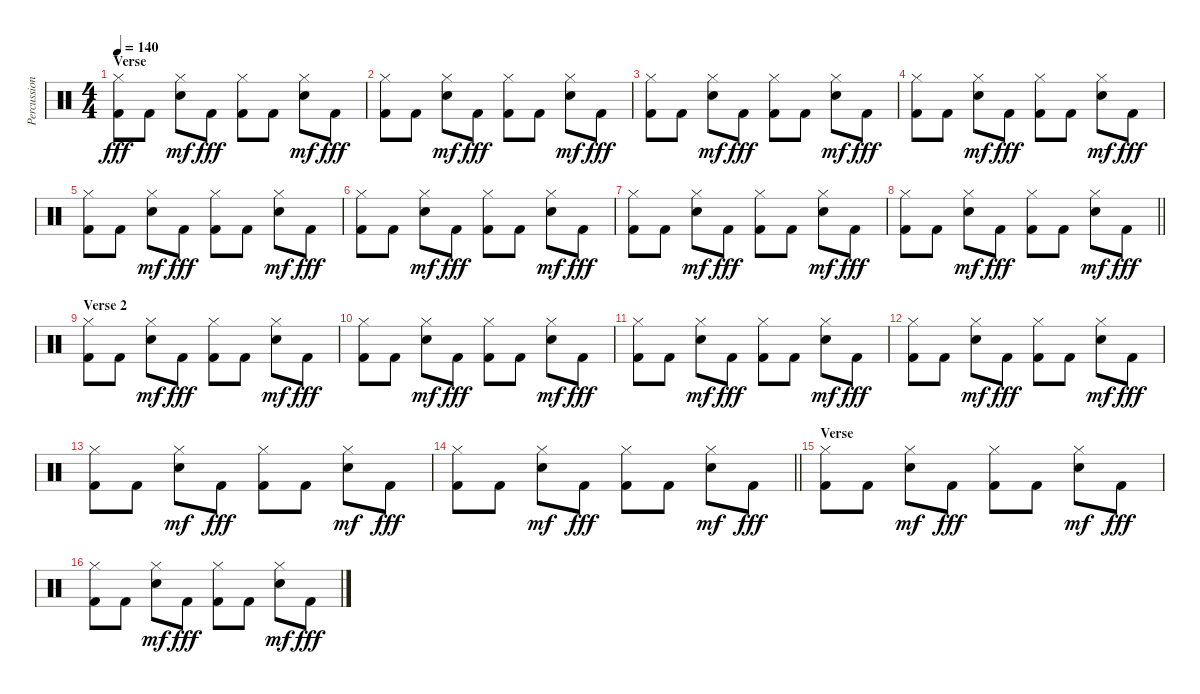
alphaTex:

\track ("Percussioni" "Percussion") {instrument percussion}
\staff {score}
\articulation defaults
\ts (4 4)
\section ("" "Verse")
\tempo 140
\clef neutral
\ks c
("Hi-Hat (closed)" "Kick (hit) 2").8{dy fff} "Kick (hit) 2".8 ("Hi-Hat (closed)" "Snare (hit) 2").8{dy mf} "Kick (hit) 2".8{dy fff} ("Hi-Hat (closed)" "Kick (hit) 2").8 "Kick (hit) 2".8 ("Hi-Hat (closed)" "Snare (hit) 2").8{dy mf} "Kick (hit) 2".8{dy fff} |
("Hi-Hat (closed)" "Kick (hit) 2").8 "Kick (hit) 2".8 ("Hi-Hat (closed)" "Snare (hit) 2").8{dy mf} "Kick (hit) 2".8{dy fff} ("Hi-Hat (closed)" "Kick (hit) 2").8 "Kick (hit) 2".8 ("Hi-Hat (closed)" "Snare (hit) 2").8{dy mf} "Kick (hit) 2".8{dy fff} |
("Hi-Hat (closed)" "Kick (hit) 2").8 "Kick (hit) 2".8 ("Hi-Hat (closed)" "Snare (hit) 2").8{dy mf} "Kick (hit) 2".8{dy fff} ("Hi-Hat (closed)" "Kick (hit) 2").8 "Kick (hit) 2".8 ("Hi-Hat (closed)" "Snare (hit) 2").8{dy mf} "Kick (hit) 2".8{dy fff} |
("Hi-Hat (closed)" "Kick (hit) 2").8 "Kick (hit) 2".8 ("Hi-Hat (closed)" "Snare (hit) 2").8{dy mf} "Kick (hit) 2".8{dy fff} ("Hi-Hat (closed)" "Kick (hit) 2").8 "Kick (hit) 2".8 ("Hi-Hat (closed)" "Snare (hit) 2").8{dy mf} "Kick (hit) 2".8{dy fff} |
("Hi-Hat (closed)" "Kick (hit) 2").8 "Kick (hit) 2".8 ("Hi-Hat (closed)" "Snare (hit) 2").8{dy mf} "Kick (hit) 2".8{dy fff} ("Hi-Hat (closed)" "Kick (hit) 2").8 "Kick (hit) 2".8 ("Hi-Hat (closed)" "Snare (hit) 2").8{dy mf} "Kick (hit) 2".8{dy fff} |
("Hi-Hat (closed)" "Kick (hit) 2").8 "Kick (hit) 2".8 ("Hi-Hat (closed)" "Snare (hit) 2").8{dy mf} "Kick (hit) 2".8{dy fff} ("Hi-Hat (closed)" "Kick (hit) 2").8 "Kick (hit) 2".8 ("Hi-Hat (closed)" "Snare (hit) 2").8{dy mf} "Kick (hit) 2".8{dy fff} |
("Hi-Hat (closed)" "Kick (hit) 2").8 "Kick (hit) 2".8 ("Hi-Hat (closed)" "Snare (hit) 2").8{dy mf} "Kick (hit) 2".8{dy fff} ("Hi-Hat (closed)" "Kick (hit) 2").8 "Kick (hit) 2".8 ("Hi-Hat (closed)" "Snare (hit) 2").8{dy mf} "Kick (hit) 2".8{dy fff} |
\barLineRight lightlight
("Hi-Hat (closed)" "Kick (hit) 2").8 "Kick (hit) 2".8 ("Hi-Hat (closed)" "Snare (hit) 2").8{dy mf} "Kick (hit) 2".8{dy fff} ("Hi-Hat (closed)" "Kick (hit) 2").8 "Kick (hit) 2".8 ("Hi-Hat (closed)" "Snare (hit) 2").8{dy mf} "Kick (hit) 2".8{dy fff} |
\section ("" "Verse 2")
("Hi-Hat (closed)" "Kick (hit) 2").8 "Kick (hit) 2".8 ("Hi-Hat (closed)" "Snare (hit) 2").8{dy mf} "Kick (hit) 2".8{dy fff} ("Hi-Hat (closed)" "Kick (hit) 2").8 "Kick (hit) 2".8 ("Hi-Hat (closed)" "Snare (hit) 2").8{dy mf} "Kick (hit) 2".8{dy fff} |
("Hi-Hat (closed)" "Kick (hit) 2").8 "Kick (hit) 2".8 ("Hi-Hat (closed)" "Snare (hit) 2").8{dy mf} "Kick (hit) 2".8{dy fff} ("Hi-Hat (closed)" "Kick (hit) 2").8 "Kick (hit) 2".8 ("Hi-Hat (closed)" "Snare (hit) 2").8{dy mf} "Kick (hit) 2".8{dy fff} |
("Hi-Hat (closed)" "Kick (hit) 2").8 "Kick (hit) 2".8 ("Hi-Hat (closed)" "Snare (hit) 2").8{dy mf} "Kick (hit) 2".8{dy fff} ("Hi-Hat (closed)" "Kick (hit) 2").8 "Kick (hit) 2".8 ("Hi-Hat (closed)" "Snare (hit) 2").8{dy mf} "Kick (hit) 2".8{dy fff} |
("Hi-Hat (closed)" "Kick (hit) 2").8 "Kick (hit) 2".8 ("Hi-Hat (closed)" "Snare (hit) 2").8{dy mf} "Kick (hit) 2".8{dy fff} ("Hi-Hat (closed)" "Kick (hit) 2").8 "Kick (hit) 2".8 ("Hi-Hat (closed)" "Snare (hit) 2").8{dy mf} "Kick (hit) 2".8{dy fff} |
("Hi-Hat (closed)" "Kick (hit) 2").8 "Kick (hit) 2".8 ("Hi-Hat (closed)" "Snare (hit) 2").8{dy mf} "Kick (hit) 2".8{dy fff} ("Hi-Hat (closed)" "Kick (hit) 2").8 "Kick (hit) 2".8 ("Hi-Hat (closed)" "Snare (hit) 2").8{dy mf} "Kick (hit) 2".8{dy fff} |
\barLineRight lightlight
("Hi-Hat (closed)" "Kick (hit) 2").8 "Kick (hit) 2".8 ("Hi-Hat (closed)" "Snare (hit) 2").8{dy mf} "Kick (hit) 2".8{dy fff} ("Hi-Hat (closed)" "Kick (hit) 2").8 "Kick (hit) 2".8 ("Hi-Hat (closed)" "Snare (hit) 2").8{dy mf} "Kick (hit) 2".8{dy fff} |
\section ("" "Verse")
("Hi-Hat (closed)" "Kick (hit) 2").8 "Kick (hit) 2".8 ("Hi-Hat (closed)" "Snare (hit) 2").8{dy mf} "Kick (hit) 2".8{dy fff} ("Hi-Hat (closed)" "Kick (hit) 2").8 "Kick (hit) 2".8 ("Hi-Hat (closed)" "Snare (hit) 2").8{dy mf} "Kick (hit) 2".8{dy fff} |
("Hi-Hat (closed)" "Kick (hit) 2").8 "Kick (hit) 2".8 ("Hi-Hat (closed)" "Snare (hit) 2").8{dy mf} "Kick (hit) 2".8{dy fff} ("Hi-Hat (closed)" "Kick (hit) 2").8 "Kick (hit) 2".8 ("Hi-Hat (closed)" "Snare (hit) 2").8{dy mf} "Kick (hit) 2".8{dy fff}
